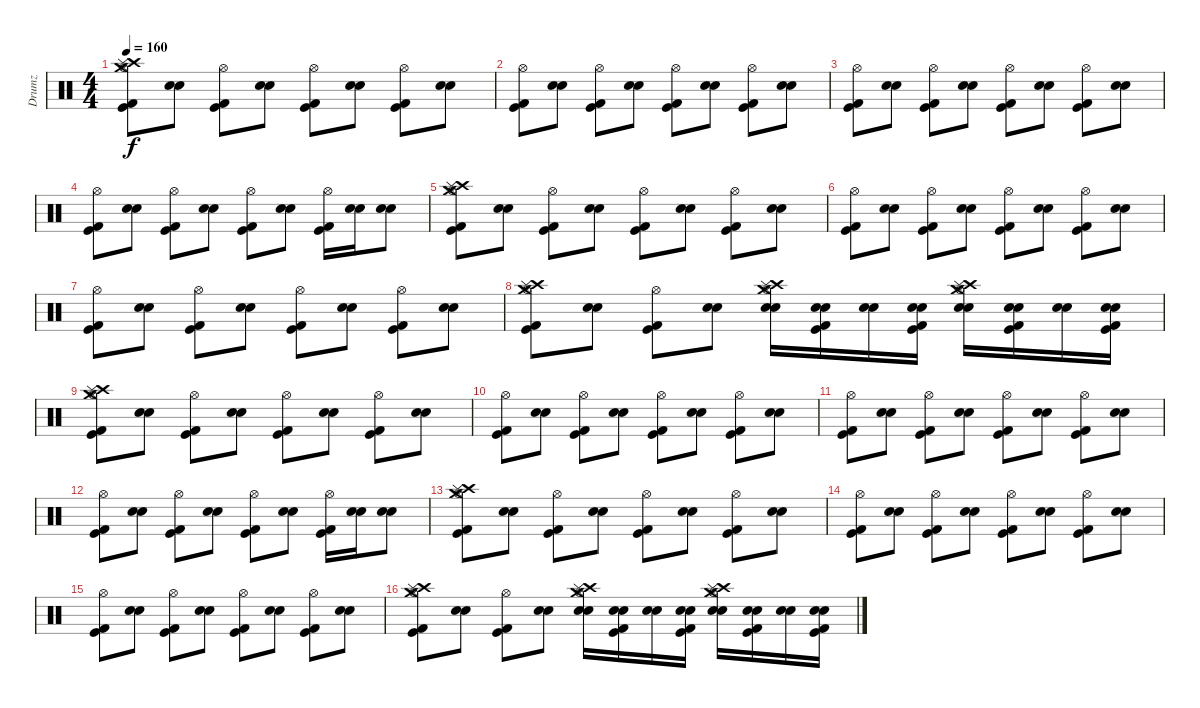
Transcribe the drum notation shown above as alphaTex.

\track ("Drumz" "Drumz") {instrument percussion}
\staff {score}
\articulation defaults
\ts (4 4)
\tempo 160
\clef neutral
\ks c
("Kick (hit)" "Kick (hit) 2" "Hi-Hat (open)" "Crash high (hit)" "Crash medium (hit)" "Splash (hit)").8{dy f volume 12} ("Electric Snare (hit)" "Snare (hit) 2").8 ("Kick (hit) 2" "Kick (hit)" "Hi-Hat (open)").8 ("Snare (hit) 2" "Electric Snare (hit)").8 ("Kick (hit) 2" "Kick (hit)" "Hi-Hat (open)").8 ("Electric Snare (hit)" "Snare (hit) 2").8 ("Kick (hit)" "Kick (hit) 2" "Hi-Hat (open)").8 ("Snare (hit) 2" "Electric Snare (hit)").8 |
("Kick (hit)" "Kick (hit) 2" "Hi-Hat (open)").8 ("Electric Snare (hit)" "Snare (hit) 2").8 ("Kick (hit) 2" "Kick (hit)" "Hi-Hat (open)").8 ("Snare (hit) 2" "Electric Snare (hit)").8 ("Kick (hit) 2" "Kick (hit)" "Hi-Hat (open)").8 ("Electric Snare (hit)" "Snare (hit) 2").8 ("Kick (hit)" "Kick (hit) 2" "Hi-Hat (open)").8 ("Snare (hit) 2" "Electric Snare (hit)").8 |
("Kick (hit)" "Kick (hit) 2" "Hi-Hat (open)").8 ("Electric Snare (hit)" "Snare (hit) 2").8 ("Kick (hit) 2" "Kick (hit)" "Hi-Hat (open)").8 ("Snare (hit) 2" "Electric Snare (hit)").8 ("Kick (hit) 2" "Kick (hit)" "Hi-Hat (open)").8 ("Electric Snare (hit)" "Snare (hit) 2").8 ("Kick (hit)" "Kick (hit) 2" "Hi-Hat (open)").8 ("Snare (hit) 2" "Electric Snare (hit)").8 |
("Kick (hit)" "Kick (hit) 2" "Hi-Hat (open)").8 ("Electric Snare (hit)" "Snare (hit) 2").8 ("Kick (hit) 2" "Kick (hit)" "Hi-Hat (open)").8 ("Snare (hit) 2" "Electric Snare (hit)").8 ("Kick (hit) 2" "Kick (hit)" "Hi-Hat (open)").8 ("Electric Snare (hit)" "Snare (hit) 2").8 ("Kick (hit)" "Kick (hit) 2" "Hi-Hat (open)").16 ("Snare (hit) 2" "Electric Snare (hit)").16 ("Snare (hit) 2" "Electric Snare (hit)").8 |
("Kick (hit)" "Kick (hit) 2" "Hi-Hat (open)" "Crash high (hit)" "Crash medium (hit)" "Splash (hit)").8{volume 12} ("Electric Snare (hit)" "Snare (hit) 2").8 ("Kick (hit) 2" "Kick (hit)" "Hi-Hat (open)").8 ("Snare (hit) 2" "Electric Snare (hit)").8 ("Kick (hit) 2" "Kick (hit)" "Hi-Hat (open)").8 ("Electric Snare (hit)" "Snare (hit) 2").8 ("Kick (hit)" "Kick (hit) 2" "Hi-Hat (open)").8 ("Snare (hit) 2" "Electric Snare (hit)").8 |
("Kick (hit)" "Kick (hit) 2" "Hi-Hat (open)").8 ("Electric Snare (hit)" "Snare (hit) 2").8 ("Kick (hit) 2" "Kick (hit)" "Hi-Hat (open)").8 ("Snare (hit) 2" "Electric Snare (hit)").8 ("Kick (hit) 2" "Kick (hit)" "Hi-Hat (open)").8 ("Electric Snare (hit)" "Snare (hit) 2").8 ("Kick (hit)" "Kick (hit) 2" "Hi-Hat (open)").8 ("Snare (hit) 2" "Electric Snare (hit)").8 |
("Kick (hit)" "Kick (hit) 2" "Hi-Hat (open)").8 ("Electric Snare (hit)" "Snare (hit) 2").8 ("Kick (hit) 2" "Kick (hit)" "Hi-Hat (open)").8 ("Snare (hit) 2" "Electric Snare (hit)").8 ("Kick (hit) 2" "Kick (hit)" "Hi-Hat (open)").8 ("Electric Snare (hit)" "Snare (hit) 2").8 ("Kick (hit)" "Kick (hit) 2" "Hi-Hat (open)").8 ("Snare (hit) 2" "Electric Snare (hit)").8 |
("Kick (hit)" "Kick (hit) 2" "Hi-Hat (open)" "Crash high (hit)" "Splash (hit)" "Crash medium (hit)").8 ("Electric Snare (hit)" "Snare (hit) 2").8 ("Kick (hit) 2" "Kick (hit)" "Hi-Hat (open)").8 ("Snare (hit) 2" "Electric Snare (hit)").8 ("Crash medium (hit)" "Electric Snare (hit)" "Hi-Hat (open)" "Crash high (hit)" "Splash (hit)" "Snare (hit) 2").16 ("Kick (hit) 2" "Kick (hit)" "Electric Snare (hit)" "Snare (hit) 2").16 ("Electric Snare (hit)" "Snare (hit) 2").16 ("Snare (hit) 2" "Electric Snare (hit)" "Kick (hit) 2" "Kick (hit)").16 ("Crash medium (hit)" "Snare (hit) 2" "Hi-Hat (open)" "Crash high (hit)" "Splash (hit)" "Electric Snare (hit)").16 ("Kick (hit)" "Kick (hit) 2" "Snare (hit) 2" "Electric Snare (hit)").16 ("Snare (hit) 2" "Electric Snare (hit)").16 ("Electric Snare (hit)" "Snare (hit) 2" "Kick (hit) 2" "Kick (hit)").16 |
("Kick (hit)" "Kick (hit) 2" "Hi-Hat (open)" "Crash high (hit)" "Crash medium (hit)" "Splash (hit)").8{volume 12} ("Electric Snare (hit)" "Snare (hit) 2").8 ("Kick (hit) 2" "Kick (hit)" "Hi-Hat (open)").8 ("Snare (hit) 2" "Electric Snare (hit)").8 ("Kick (hit) 2" "Kick (hit)" "Hi-Hat (open)").8 ("Electric Snare (hit)" "Snare (hit) 2").8 ("Kick (hit)" "Kick (hit) 2" "Hi-Hat (open)").8 ("Snare (hit) 2" "Electric Snare (hit)").8 |
("Kick (hit)" "Kick (hit) 2" "Hi-Hat (open)").8 ("Electric Snare (hit)" "Snare (hit) 2").8 ("Kick (hit) 2" "Kick (hit)" "Hi-Hat (open)").8 ("Snare (hit) 2" "Electric Snare (hit)").8 ("Kick (hit) 2" "Kick (hit)" "Hi-Hat (open)").8 ("Electric Snare (hit)" "Snare (hit) 2").8 ("Kick (hit)" "Kick (hit) 2" "Hi-Hat (open)").8 ("Snare (hit) 2" "Electric Snare (hit)").8 |
("Kick (hit)" "Kick (hit) 2" "Hi-Hat (open)").8 ("Electric Snare (hit)" "Snare (hit) 2").8 ("Kick (hit) 2" "Kick (hit)" "Hi-Hat (open)").8 ("Snare (hit) 2" "Electric Snare (hit)").8 ("Kick (hit) 2" "Kick (hit)" "Hi-Hat (open)").8 ("Electric Snare (hit)" "Snare (hit) 2").8 ("Kick (hit)" "Kick (hit) 2" "Hi-Hat (open)").8 ("Snare (hit) 2" "Electric Snare (hit)").8 |
("Kick (hit)" "Kick (hit) 2" "Hi-Hat (open)").8 ("Electric Snare (hit)" "Snare (hit) 2").8 ("Kick (hit) 2" "Kick (hit)" "Hi-Hat (open)").8 ("Snare (hit) 2" "Electric Snare (hit)").8 ("Kick (hit) 2" "Kick (hit)" "Hi-Hat (open)").8 ("Electric Snare (hit)" "Snare (hit) 2").8 ("Kick (hit)" "Kick (hit) 2" "Hi-Hat (open)").16 ("Snare (hit) 2" "Electric Snare (hit)").16 ("Snare (hit) 2" "Electric Snare (hit)").8 |
("Kick (hit)" "Kick (hit) 2" "Hi-Hat (open)" "Crash high (hit)" "Crash medium (hit)" "Splash (hit)").8{volume 12} ("Electric Snare (hit)" "Snare (hit) 2").8 ("Kick (hit) 2" "Kick (hit)" "Hi-Hat (open)").8 ("Snare (hit) 2" "Electric Snare (hit)").8 ("Kick (hit) 2" "Kick (hit)" "Hi-Hat (open)").8 ("Electric Snare (hit)" "Snare (hit) 2").8 ("Kick (hit)" "Kick (hit) 2" "Hi-Hat (open)").8 ("Snare (hit) 2" "Electric Snare (hit)").8 |
("Kick (hit)" "Kick (hit) 2" "Hi-Hat (open)").8 ("Electric Snare (hit)" "Snare (hit) 2").8 ("Kick (hit) 2" "Kick (hit)" "Hi-Hat (open)").8 ("Snare (hit) 2" "Electric Snare (hit)").8 ("Kick (hit) 2" "Kick (hit)" "Hi-Hat (open)").8 ("Electric Snare (hit)" "Snare (hit) 2").8 ("Kick (hit)" "Kick (hit) 2" "Hi-Hat (open)").8 ("Snare (hit) 2" "Electric Snare (hit)").8 |
("Kick (hit)" "Kick (hit) 2" "Hi-Hat (open)").8 ("Electric Snare (hit)" "Snare (hit) 2").8 ("Kick (hit) 2" "Kick (hit)" "Hi-Hat (open)").8 ("Snare (hit) 2" "Electric Snare (hit)").8 ("Kick (hit) 2" "Kick (hit)" "Hi-Hat (open)").8 ("Electric Snare (hit)" "Snare (hit) 2").8 ("Kick (hit)" "Kick (hit) 2" "Hi-Hat (open)").8 ("Snare (hit) 2" "Electric Snare (hit)").8 |
("Kick (hit)" "Kick (hit) 2" "Hi-Hat (open)" "Crash high (hit)" "Splash (hit)" "Crash medium (hit)").8 ("Electric Snare (hit)" "Snare (hit) 2").8 ("Kick (hit) 2" "Kick (hit)" "Hi-Hat (open)").8 ("Snare (hit) 2" "Electric Snare (hit)").8 ("Crash medium (hit)" "Electric Snare (hit)" "Hi-Hat (open)" "Crash high (hit)" "Splash (hit)" "Snare (hit) 2").16 ("Kick (hit) 2" "Kick (hit)" "Electric Snare (hit)" "Snare (hit) 2").16 ("Electric Snare (hit)" "Snare (hit) 2").16 ("Snare (hit) 2" "Electric Snare (hit)" "Kick (hit) 2" "Kick (hit)").16 ("Crash medium (hit)" "Snare (hit) 2" "Hi-Hat (open)" "Crash high (hit)" "Splash (hit)" "Electric Snare (hit)").16 ("Kick (hit)" "Kick (hit) 2" "Snare (hit) 2" "Electric Snare (hit)").16 ("Snare (hit) 2" "Electric Snare (hit)").16 ("Electric Snare (hit)" "Snare (hit) 2" "Kick (hit) 2" "Kick (hit)").16
